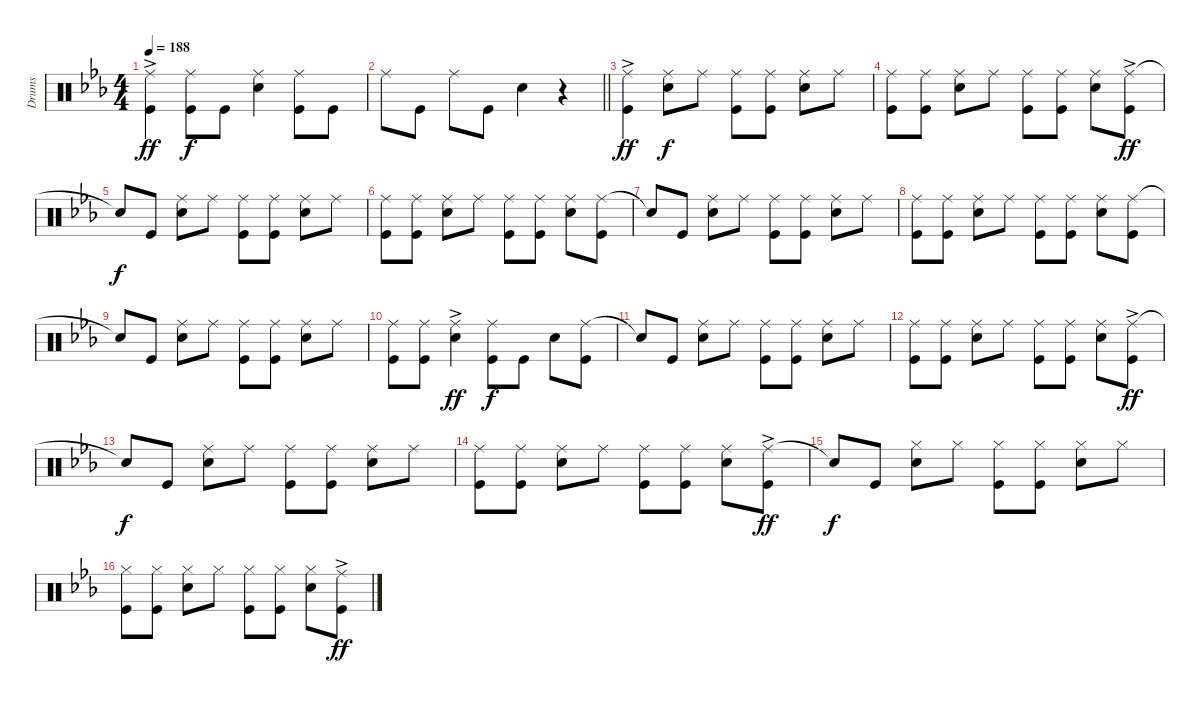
\track ("Drums" "Drums") {instrument percussion}
\staff {score}
\articulation defaults
\ts (4 4)
\tempo 188
\clef neutral
\ks eb
("Ride (middle)"{ac} "Kick (hit)").4{dy ff} ("Ride (middle)" "Kick (hit)").8{dy f} "Kick (hit)".8 ("Ride (middle)" "Snare (hit) 2").4 ("Ride (middle)" "Kick (hit)").8 "Kick (hit)".8 |
\barLineRight lightlight "Ride (middle)".8 "Kick (hit)".8 "Ride (middle)".8 "Kick (hit)".8 "Snare (hit) 2".4
r.4 |
("Ride (middle)"{ac} "Kick (hit)").4{dy ff} ("Ride (middle)" "Snare (hit) 2").8{dy f} "Ride (middle)".8 ("Ride (middle)" "Kick (hit)").8 ("Ride (middle)" "Kick (hit)").8 ("Ride (middle)" "Snare (hit) 2").8 "Ride (middle)".8 |
("Ride (middle)" "Kick (hit)").8 ("Ride (middle)" "Kick (hit)").8 ("Ride (middle)" "Snare (hit) 2").8 "Ride (middle)".8 ("Ride (middle)" "Kick (hit)").8 ("Ride (middle)" "Kick (hit)").8 ("Ride (middle)" "Snare (hit) 2").8 ("Ride (middle)"{ac} "Kick (hit)").8{dy ff} |
"Snare (hit)"{t}.8{dy f} "Kick (hit)".8 ("Ride (middle)" "Snare (hit) 2").8 "Ride (middle)".8 ("Ride (middle)" "Kick (hit)").8 ("Ride (middle)" "Kick (hit)").8 ("Ride (middle)" "Snare (hit) 2").8 "Ride (middle)".8 |
("Ride (middle)" "Kick (hit)").8 ("Ride (middle)" "Kick (hit)").8 ("Ride (middle)" "Snare (hit) 2").8 "Ride (middle)".8 ("Ride (middle)" "Kick (hit)").8 ("Ride (middle)" "Kick (hit)").8 ("Ride (middle)" "Snare (hit) 2").8 ("Ride (middle)" "Kick (hit)").8 |
"Snare (hit)"{t}.8 "Kick (hit)".8 ("Ride (middle)" "Snare (hit) 2").8 "Ride (middle)".8 ("Ride (middle)" "Kick (hit)").8 ("Ride (middle)" "Kick (hit)").8 ("Ride (middle)" "Snare (hit) 2").8 "Ride (middle)".8 |
("Ride (middle)" "Kick (hit)").8 ("Ride (middle)" "Kick (hit)").8 ("Ride (middle)" "Snare (hit) 2").8 "Ride (middle)".8 ("Ride (middle)" "Kick (hit)").8 ("Ride (middle)" "Kick (hit)").8 ("Ride (middle)" "Snare (hit) 2").8 ("Ride (middle)" "Kick (hit)").8 |
"Snare (hit)"{t}.8 "Kick (hit)".8 ("Ride (middle)" "Snare (hit) 2").8 "Ride (middle)".8 ("Ride (middle)" "Kick (hit)").8 ("Ride (middle)" "Kick (hit)").8 ("Ride (middle)" "Snare (hit) 2").8 "Ride (middle)".8 |
("Ride (middle)" "Kick (hit)").8 ("Ride (middle)" "Kick (hit)").8 ("Ride (middle)"{ac} "Snare (hit) 2").4{dy ff} ("Ride (middle)" "Kick (hit)").8{dy f} "Kick (hit)".8 "Snare (hit) 2".8 ("Ride (middle)" "Kick (hit)").8 |
"Snare (hit)"{t}.8 "Kick (hit)".8 ("Ride (middle)" "Snare (hit) 2").8 "Ride (middle)".8 ("Ride (middle)" "Kick (hit)").8 ("Ride (middle)" "Kick (hit)").8 ("Ride (middle)" "Snare (hit) 2").8 "Ride (middle)".8 |
("Ride (middle)" "Kick (hit)").8 ("Ride (middle)" "Kick (hit)").8 ("Ride (middle)" "Snare (hit) 2").8 "Ride (middle)".8 ("Ride (middle)" "Kick (hit)").8 ("Ride (middle)" "Kick (hit)").8 ("Ride (middle)" "Snare (hit) 2").8 ("Ride (middle)"{ac} "Kick (hit)").8{dy ff} |
"Snare (hit)"{t}.8{dy f} "Kick (hit)".8 ("Ride (middle)" "Snare (hit) 2").8 "Ride (middle)".8 ("Ride (middle)" "Kick (hit)").8 ("Ride (middle)" "Kick (hit)").8 ("Ride (middle)" "Snare (hit) 2").8 "Ride (middle)".8 |
("Ride (middle)" "Kick (hit)").8 ("Ride (middle)" "Kick (hit)").8 ("Ride (middle)" "Snare (hit) 2").8 "Ride (middle)".8 ("Ride (middle)" "Kick (hit)").8 ("Ride (middle)" "Kick (hit)").8 ("Ride (middle)" "Snare (hit) 2").8 ("Ride (middle)"{ac} "Kick (hit)").8{dy ff} |
"Snare (hit)"{t}.8{dy f} "Kick (hit)".8 ("Hi-Hat (closed)" "Snare (hit) 2").8 "Hi-Hat (closed)".8 ("Hi-Hat (closed)" "Kick (hit)").8 ("Hi-Hat (closed)" "Kick (hit)").8 ("Hi-Hat (closed)" "Snare (hit) 2").8 "Hi-Hat (closed)".8 |
("Hi-Hat (closed)" "Kick (hit)").8 ("Hi-Hat (closed)" "Kick (hit)").8 ("Hi-Hat (closed)" "Snare (hit) 2").8 "Hi-Hat (closed)".8 ("Hi-Hat (closed)" "Kick (hit)").8 ("Hi-Hat (closed)" "Kick (hit)").8 ("Hi-Hat (closed)" "Snare (hit) 2").8 ("Ride (middle)"{ac} "Kick (hit)").8{dy ff}
